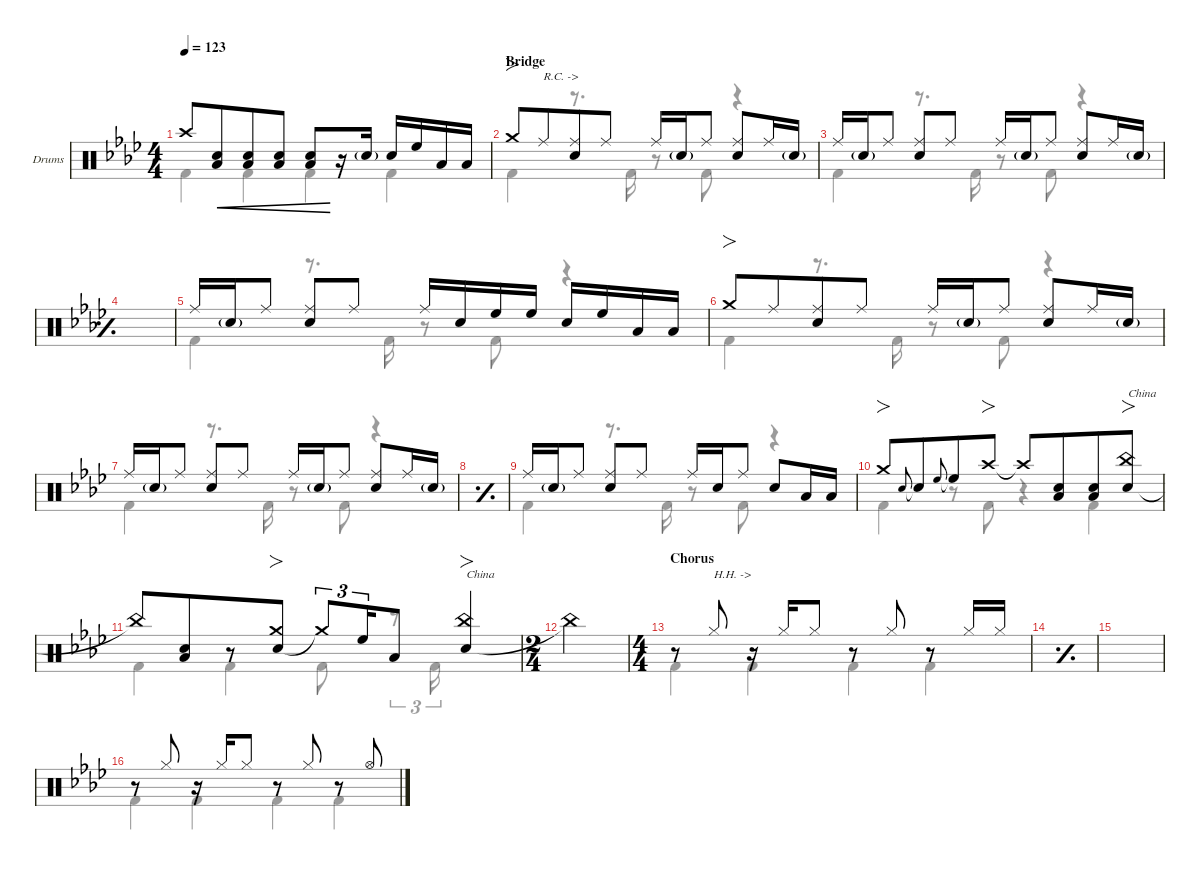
\defaultSystemsLayout 4
\hideDynamics
\bracketExtendMode nobrackets
\firstSystemTrackNameOrientation horizontal
\track ("Drums" "Drums") {defaultSystemsLayout 4 instrument percussion}
\staff {score}
\articulation defaults
\voice
\ts (4 4)
\tempo 123
\clef neutral
\scale
0.244461
\ks ab "Crash high (hit)"{t acc forcenatural}.8{dy f beam Up beam merge}
("Snare (hit) 2"{acc forcenatural} "Low Tom (hit)"{acc forcenatural}).8{cre dy mp beam Up beam merge} ("Snare (hit) 2"{acc forcenatural} "Low Tom (hit)"{acc forcenatural}).8{cre dy mf beam Up beam merge} ("Snare (hit) 2"{acc forcenatural} "Low Tom (hit)"{acc forcenatural}).8{cre beam Up} ("Snare (hit) 2"{acc forcenatural} "Low Tom (hit)"{acc forcenatural}).8{cre dy f beam Up} r.16{beam Up} "Snare (hit) 2"{g acc forcenatural}.16{dy mf beam Up} "Snare (hit) 2"{acc forcenatural}.16{dy f beam Up} "High Floor Tom (hit)"{acc forcenatural}.16{beam Up} "Low Tom (hit)"{acc forcenatural}.16{beam Up} "Low Tom (hit)"{acc forcenatural}.16{beam Up} |
\section ("" "Bridge")
\scale
0.266618 "Crash medium (hit)"{acc forcenatural}.8{fo beam Up beam merge} "Ride (middle)"{acc forcenatural}.8{txt "R.C. ->" dy mf beam Up beam merge} ("Snare (hit) 2"{acc forcenatural} "Ride (middle)"{acc forcenatural}).8{dy f beam Up beam merge} "Ride (middle)"{acc forcenatural}.8{dy mf beam Up} "Ride (middle)"{acc forcenatural}.16{dy f beam Up} "Snare (hit) 2"{g acc forcenatural}.16{dy mf beam Up} "Ride (middle)"{acc forcenatural}.8{beam Up} ("Snare (hit) 2"{acc forcenatural} "Ride (middle)"{acc forcenatural}).8{dy f beam Up beam merge} "Ride (middle)"{acc forcenatural}.16{dy mf beam Up} "Snare (hit) 2"{g acc forcenatural}.16{beam Up} |
\scale
0.245118 "Ride (middle)"{acc forcenatural}.16{dy f beam Up} "Snare (hit) 2"{g acc forcenatural}.16{dy mf beam Up} "Ride (middle)"{acc forcenatural}.8{beam Up} ("Snare (hit) 2"{acc forcenatural} "Ride (middle)"{acc forcenatural}).8{dy f beam Up beam merge} "Ride (middle)"{acc forcenatural}.8{dy mf beam Up} "Ride (middle)"{acc forcenatural}.16{dy f beam Up} "Snare (hit) 2"{g acc forcenatural}.16{dy mf beam Up} "Ride (middle)"{acc forcenatural}.8{beam Up} ("Snare (hit) 2"{acc forcenatural} "Ride (middle)"{acc forcenatural}).8{dy f beam Up beam merge} "Ride (middle)"{acc forcenatural}.16{dy mf beam Up} "Snare (hit) 2"{g acc forcenatural}.16{beam Up} |
\simile simple
\scale
0.244132 |
\simile none
\scale
0.244132 "Ride (middle)"{acc forcenatural}.16{dy f beam Up} "Snare (hit) 2"{g acc forcenatural}.16{dy mf beam Up} "Ride (middle)"{acc forcenatural}.8{beam Up} ("Ride (middle)"{acc forcenatural} "Snare (hit) 2"{acc forcenatural}).8{dy f beam Up beam merge} "Ride (middle)"{acc forcenatural}.8{dy mf beam Up} "Ride (middle)"{acc forcenatural}.16{dy f beam Up} "Snare (hit) 2"{acc forcenatural}.16{beam Up} "High Floor Tom (hit)"{acc forcenatural}.16{dy mf beam Up} "High Floor Tom (hit)"{acc forcenatural}.16{beam Up} "Snare (hit) 2"{acc forcenatural}.16{dy f beam Up} "High Floor Tom (hit)"{acc forcenatural}.16{beam Up} "Low Tom (hit)"{acc forcenatural}.16{beam Up} "Low Tom (hit)"{acc forcenatural}.16{beam Up} |
\scale
0.266618 "Crash medium (hit)"{acc forcenatural}.8{fo beam Up beam merge} "Ride (middle)"{acc forcenatural}.8{dy mf beam Up beam merge} ("Snare (hit) 2"{acc forcenatural} "Ride (middle)"{acc forcenatural}).8{dy f beam Up beam merge} "Ride (middle)"{acc forcenatural}.8{dy mf beam Up} "Ride (middle)"{acc forcenatural}.16{dy f beam Up} "Snare (hit) 2"{g acc forcenatural}.16{dy mf beam Up} "Ride (middle)"{acc forcenatural}.8{beam Up} ("Snare (hit) 2"{acc forcenatural} "Ride (middle)"{acc forcenatural}).8{dy f beam Up beam merge} "Ride (middle)"{acc forcenatural}.16{dy mf beam Up} "Snare (hit) 2"{g acc forcenatural}.16{beam Up} |
\scale
0.244461 "Ride (middle)"{acc forcenatural}.16{dy f beam Up} "Snare (hit) 2"{g acc forcenatural}.16{dy mf beam Up} "Ride (middle)"{acc forcenatural}.8{beam Up} ("Snare (hit) 2"{acc forcenatural} "Ride (middle)"{acc forcenatural}).8{dy f beam Up beam merge} "Ride (middle)"{acc forcenatural}.8{dy mf beam Up} "Ride (middle)"{acc forcenatural}.16{dy f beam Up} "Snare (hit) 2"{g acc forcenatural}.16{dy mf beam Up} "Ride (middle)"{acc forcenatural}.8{beam Up} ("Snare (hit) 2"{acc forcenatural} "Ride (middle)"{acc forcenatural}).8{dy f beam Up beam merge} "Ride (middle)"{acc forcenatural}.16{dy mf beam Up} "Snare (hit) 2"{g acc forcenatural}.16{beam Up} |
\simile simple
\scale
0.24446 |
\simile none
\scale
0.244461 "Ride (middle)"{acc forcenatural}.16{dy f beam Up} "Snare (hit) 2"{g acc forcenatural}.16{dy mf beam Up} "Ride (middle)"{acc forcenatural}.8{beam Up} ("Snare (hit) 2"{acc forcenatural} "Ride (middle)"{acc forcenatural}).8{dy f beam Up beam merge} "Ride (middle)"{acc forcenatural}.8{dy mf beam Up} "Ride (middle)"{acc forcenatural}.16{dy f beam Up} "Snare (hit) 2"{acc forcenatural}.16{dy mf beam Up} "Ride (middle)"{acc forcenatural}.8{beam Up} "Snare (hit) 2"{acc forcenatural}.8{dy f beam Up beam merge} "Low Tom (hit)"{acc forcenatural}.16{dy mf beam Up} "Low Tom (hit)"{acc forcenatural}.16{beam Up} |
\scale
0.345786 "Crash medium (hit)"{acc forcenatural}.8{fo dy f beam Up} "Snare (hit) 2"{acc forcenatural}.8{gr onbeat beam Up} "Snare (hit) 2"{t acc forcenatural}.8{beam Up beam merge} "High Floor Tom (hit)"{acc forcenatural}.8{gr onbeat beam Up beam merge} "High Floor Tom (hit)"{t acc forcenatural}.8{beam Up} "Crash high (hit)"{acc forcenatural}.8{fo beam Up} "Crash high (hit)"{t acc forcenatural}.8{beam Up beam merge} ("Snare (hit) 2"{acc forcenatural} "Low Tom (hit)"{acc forcenatural}).8{beam Up beam merge} ("Snare (hit) 2"{acc forcenatural} "Low Tom (hit)"{acc forcenatural}).8{beam Up beam merge} ("Snare (hit) 2"{acc forcenatural} "China (hit)"{acc forcenatural}).8{fo txt "China" beam Up} |
\scale
0.318427 "China (hit)"{t acc forcenatural}.8{beam Up beam merge} ("Snare (hit) 2"{acc forcenatural} "Low Tom (hit)"{acc forcenatural}).8{beam Up beam merge} r.8{beam Up beam merge} ("Snare (hit) 2"{acc forcenatural} "Crash medium (hit)"{acc forcenatural}).8{fo beam Up} "Crash medium (hit)"{t acc forcenatural}.8{tu (3 2) beam Up} "High Floor Tom (hit)"{acc forcenatural}.16{tu (3 2) beam Up beam merge} "Low Tom (hit)"{acc forcenatural}.8{beam Up} ("Snare (hit) 2"{acc forcenatural} "China (hit)"{acc forcenatural}).4{fo txt "China" beam Up} |
\ts (2 4)
\beaming (8 2 2)
\scale
0.335787 "China (hit)"{t acc forcenatural}.2{beam Down} |
\ts (4 4)
\beaming (8 2 2 2 2)
\section ("" "Chorus")
\scale
0.266618 r.8{beam Up} "Hi-Hat (closed)"{acc forcenatural}.8{txt "H.H. ->" beam Up} r.16{beam Up} "Hi-Hat (closed)"{acc forcenatural}.16{beam Up} "Hi-Hat (closed)"{acc forcenatural}.8{dy mf beam Up} r.8{beam Up} "Hi-Hat (closed)"{acc forcenatural}.8{dy f beam Up} r.8{beam Up} "Hi-Hat (closed)"{acc forcenatural}.16{beam Up} "Hi-Hat (closed)"{acc forcenatural}.16{dy mf beam Up} |
\simile simple
\scale
0.244461 |
\scale
0.24446 |
\simile none
\scale
0.244461 r.8{beam Up} "Hi-Hat (closed)"{acc forcenatural}.8{dy f beam Up} r.16{beam Up} "Hi-Hat (closed)"{acc forcenatural}.16{beam Up} "Hi-Hat (closed)"{acc forcenatural}.8{dy mf beam Up} r.8{beam Up} "Hi-Hat (closed)"{acc forcenatural}.8{dy f beam Up} r.8{beam Up} "Hi-Hat (open)"{acc forcenatural}.8{beam Up}
\voice
\clef neutral
\ottava regular
\simile none
\scale
0.244461
\ks ab "Kick (hit) 2"{acc forcenatural}.4{dy f beam Down} "Kick (hit) 2"{acc forcenatural}.4{beam Down} "Kick (hit) 2"{acc forcenatural}.4{beam Down} "Kick (hit) 2"{acc forcenatural}.4{beam Down}
|
\scale
0.266618 "Kick (hit) 2"{acc forcenatural}.4{beam Down} r.8{d beam Down} "Kick (hit) 2"{acc forcenatural}.16{beam Down} r.8{beam Down} "Kick (hit) 2"{acc forcenatural}.8{beam Down} r.4{beam Down} |
\scale
0.245118 "Kick (hit) 2"{acc forcenatural}.4{beam Down} r.8{d beam Down} "Kick (hit) 2"{acc forcenatural}.16{beam Down} r.8{beam Down} "Kick (hit) 2"{acc forcenatural}.8{beam Down} r.4{beam Down} |
\simile simple
\scale
0.244132 |
\simile none
\scale
0.244132 "Kick (hit) 2"{acc forcenatural}.4{beam Down} r.8{d beam Down} "Kick (hit) 2"{acc forcenatural}.16{beam Down} r.8{beam Down} "Kick (hit) 2"{acc forcenatural}.8{beam Down} r.4{beam Down} |
\scale
0.266618 "Kick (hit) 2"{acc forcenatural}.4{beam Down} r.8{d beam Down} "Kick (hit) 2"{acc forcenatural}.16{beam Down} r.8{beam Down} "Kick (hit) 2"{acc forcenatural}.8{beam Down} r.4{beam Down} |
\scale
0.244461 "Kick (hit) 2"{acc forcenatural}.4{beam Down} r.8{d beam Down} "Kick (hit) 2"{acc forcenatural}.16{beam Down} r.8{beam Down} "Kick (hit) 2"{acc forcenatural}.8{beam Down} r.4{beam Down} |
\simile simple
\scale
0.24446 |
\simile none
\scale
0.244461 "Kick (hit) 2"{acc forcenatural}.4{beam Down} r.8{d beam Down} "Kick (hit) 2"{acc forcenatural}.16{beam Down} r.8{beam Down} "Kick (hit) 2"{acc forcenatural}.8{beam Down} r.4{beam Down} |
\scale
0.345786 "Kick (hit) 2"{acc forcenatural}.4{beam Down} r.8{beam Down} "Kick (hit) 2"{acc forcenatural}.8{beam Down} r.4{beam Down} "Kick (hit) 2"{acc forcenatural}.4{beam Down} |
\scale
0.318427 "Kick (hit) 2"{acc forcenatural}.4{beam Down} "Kick (hit) 2"{acc forcenatural}.4{beam Down} "Kick (hit) 2"{acc forcenatural}.8{beam Down} r.8{tu (3 2) beam Down} "Kick (hit) 2"{acc forcenatural}.16{tu (3 2) beam Down} |
\scale
0.335787 |
\scale
0.266618 "Kick (hit) 2"{acc forcenatural}.4{beam Down} "Kick (hit) 2"{acc forcenatural}.4{beam Down} "Kick (hit) 2"{acc forcenatural}.4{beam Down} "Kick (hit) 2"{acc forcenatural}.4{beam Down} |
\simile simple
\scale
0.244461 |
\scale
0.24446 |
\simile none
\scale
0.244461 "Kick (hit) 2"{acc forcenatural}.4{beam Down} "Kick (hit) 2"{acc forcenatural}.4{beam Down} "Kick (hit) 2"{acc forcenatural}.4{beam Down} "Kick (hit) 2"{acc forcenatural}.4{beam Down}
